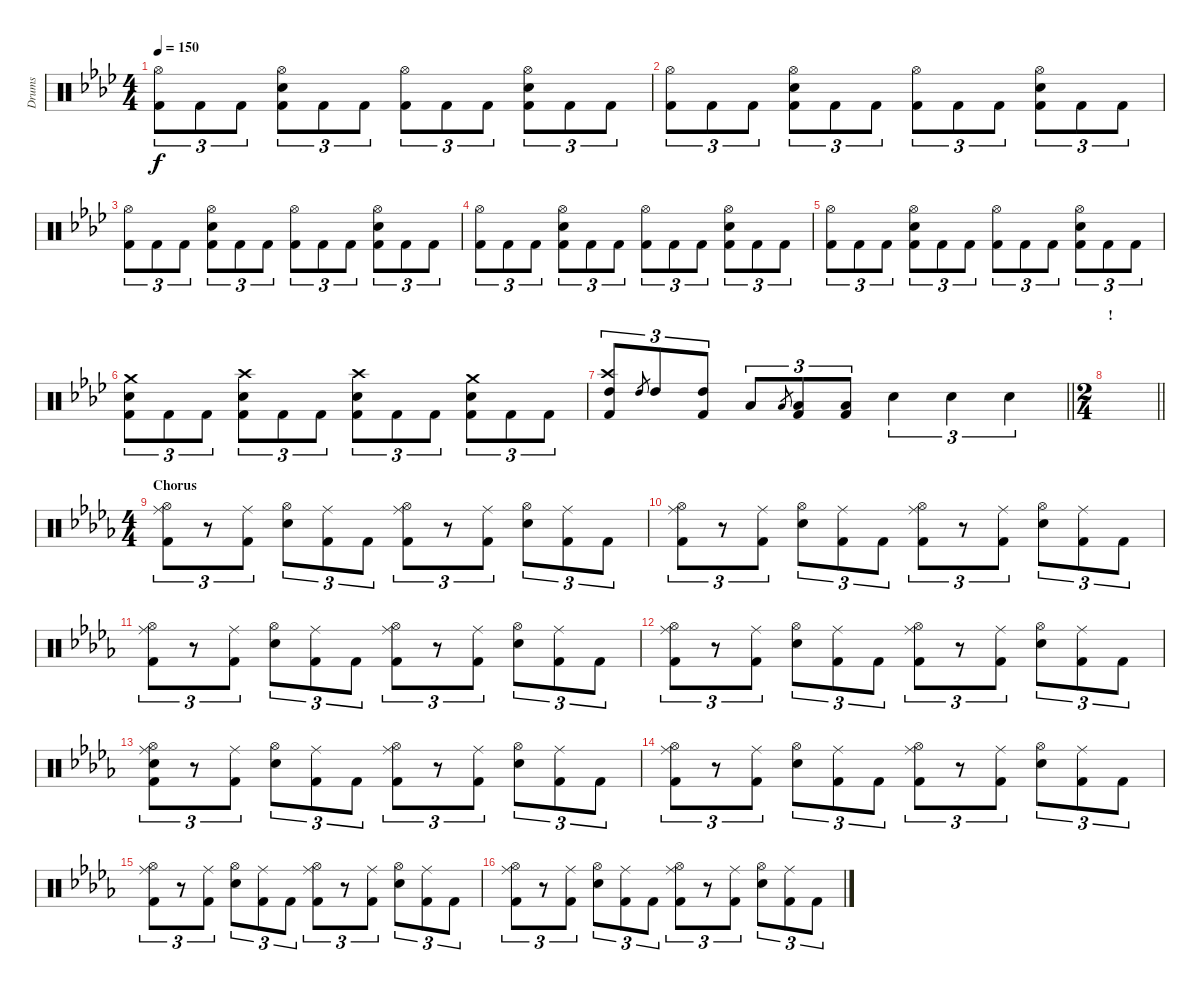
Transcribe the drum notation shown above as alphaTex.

\track ("Drums" "Drums") {instrument percussion}
\staff {score}
\articulation defaults
\ts (4 4)
\tempo 150
\clef neutral
\ks fminor
("Hi-Hat (open)" "Kick (hit) 2").8{tu (3 2) dy f} "Kick (hit) 2".8{tu (3 2)} "Kick (hit) 2".8{tu (3 2)} ("Hi-Hat (open)" "Snare (hit) 2" "Kick (hit) 2").8{tu (3 2)} "Kick (hit) 2".8{tu (3 2)} "Kick (hit) 2".8{tu (3 2)} ("Hi-Hat (open)" "Kick (hit) 2").8{tu (3 2)} "Kick (hit) 2".8{tu (3 2)} "Kick (hit) 2".8{tu (3 2)} ("Hi-Hat (open)" "Snare (hit) 2" "Kick (hit) 2").8{tu (3 2)} "Kick (hit) 2".8{tu (3 2)} "Kick (hit) 2".8{tu (3 2)} |
("Hi-Hat (open)" "Kick (hit) 2").8{tu (3 2)} "Kick (hit) 2".8{tu (3 2)} "Kick (hit) 2".8{tu (3 2)} ("Hi-Hat (open)" "Snare (hit) 2" "Kick (hit) 2").8{tu (3 2)} "Kick (hit) 2".8{tu (3 2)} "Kick (hit) 2".8{tu (3 2)} ("Hi-Hat (open)" "Kick (hit) 2").8{tu (3 2)} "Kick (hit) 2".8{tu (3 2)} "Kick (hit) 2".8{tu (3 2)} ("Hi-Hat (open)" "Snare (hit) 2" "Kick (hit) 2").8{tu (3 2)} "Kick (hit) 2".8{tu (3 2)} "Kick (hit) 2".8{tu (3 2)} |
("Hi-Hat (open)" "Kick (hit) 2").8{tu (3 2)} "Kick (hit) 2".8{tu (3 2)} "Kick (hit) 2".8{tu (3 2)} ("Hi-Hat (open)" "Snare (hit) 2" "Kick (hit) 2").8{tu (3 2)} "Kick (hit) 2".8{tu (3 2)} "Kick (hit) 2".8{tu (3 2)} ("Hi-Hat (open)" "Kick (hit) 2").8{tu (3 2)} "Kick (hit) 2".8{tu (3 2)} "Kick (hit) 2".8{tu (3 2)} ("Hi-Hat (open)" "Snare (hit) 2" "Kick (hit) 2").8{tu (3 2)} "Kick (hit) 2".8{tu (3 2)} "Kick (hit) 2".8{tu (3 2)} |
("Hi-Hat (open)" "Kick (hit) 2").8{tu (3 2)} "Kick (hit) 2".8{tu (3 2)} "Kick (hit) 2".8{tu (3 2)} ("Hi-Hat (open)" "Snare (hit) 2" "Kick (hit) 2").8{tu (3 2)} "Kick (hit) 2".8{tu (3 2)} "Kick (hit) 2".8{tu (3 2)} ("Hi-Hat (open)" "Kick (hit) 2").8{tu (3 2)} "Kick (hit) 2".8{tu (3 2)} "Kick (hit) 2".8{tu (3 2)} ("Hi-Hat (open)" "Snare (hit) 2" "Kick (hit) 2").8{tu (3 2)} "Kick (hit) 2".8{tu (3 2)} "Kick (hit) 2".8{tu (3 2)} |
("Hi-Hat (open)" "Kick (hit) 2").8{tu (3 2)} "Kick (hit) 2".8{tu (3 2)} "Kick (hit) 2".8{tu (3 2)} ("Hi-Hat (open)" "Snare (hit) 2" "Kick (hit) 2").8{tu (3 2)} "Kick (hit) 2".8{tu (3 2)} "Kick (hit) 2".8{tu (3 2)} ("Hi-Hat (open)" "Kick (hit) 2").8{tu (3 2)} "Kick (hit) 2".8{tu (3 2)} "Kick (hit) 2".8{tu (3 2)} ("Hi-Hat (open)" "Snare (hit) 2" "Kick (hit) 2").8{tu (3 2)} "Kick (hit) 2".8{tu (3 2)} "Kick (hit) 2".8{tu (3 2)} |
("Crash medium (hit)" "Snare (hit) 2" "Kick (hit) 2").8{tu (3 2)} "Kick (hit) 2".8{tu (3 2)} "Kick (hit) 2".8{tu (3 2)} ("Crash high (hit)" "Snare (hit) 2" "Kick (hit) 2").8{tu (3 2)} "Kick (hit) 2".8{tu (3 2)} "Kick (hit) 2".8{tu (3 2)} ("Crash high (hit)" "Snare (hit) 2" "Kick (hit) 2").8{tu (3 2)} "Kick (hit) 2".8{tu (3 2)} "Kick (hit) 2".8{tu (3 2)} ("Crash medium (hit)" "Snare (hit) 2" "Kick (hit) 2").8{tu (3 2)} "Kick (hit) 2".8{tu (3 2)} "Kick (hit) 2".8{tu (3 2)} |
\barLineRight lightlight
("Crash high (hit)" "High Tom (hit)" "Kick (hit) 2").8{tu (3 2)} "High Tom (hit)".8{gr} "High Tom (hit)".8{tu (3 2)} ("High Tom (hit)" "Kick (hit) 2").8{tu (3 2)} "Low Tom (hit)".8{tu (3 2)} "Low Tom (hit)".8{gr} ("Low Tom (hit)" "Kick (hit) 2").8{tu (3 2)} ("Low Tom (hit)" "Kick (hit) 2").8{tu (3 2)} "Snare (hit) 2".4{tu (3 2)} "Snare (hit) 2".4{tu (3 2)} "Snare (hit) 2".4{tu (3 2)} |
\ts (2 4)
\section ("" "!")
\barLineRight lightlight
|
\ts (4 4)
\section ("" "Chorus")
\ks bbminor
("Hi-Hat (open)" "Ride (middle)" "Kick (hit) 2").8{tu (3 2)} r.8{tu (3 2)} ("Ride (middle)" "Kick (hit) 2").8{tu (3 2)} ("Hi-Hat (open)" "Snare (hit) 2").8{tu (3 2)} ("Ride (middle)" "Kick (hit) 2").8{tu (3 2)} "Kick (hit) 2".8{tu (3 2)} ("Hi-Hat (open)" "Ride (middle)" "Kick (hit) 2").8{tu (3 2)} r.8{tu (3 2)} ("Ride (middle)" "Kick (hit) 2").8{tu (3 2)} ("Hi-Hat (open)" "Snare (hit) 2").8{tu (3 2)} ("Ride (middle)" "Kick (hit) 2").8{tu (3 2)} "Kick (hit) 2".8{tu (3 2)} |
("Hi-Hat (open)" "Ride (middle)" "Kick (hit) 2").8{tu (3 2)} r.8{tu (3 2)} ("Ride (middle)" "Kick (hit) 2").8{tu (3 2)} ("Hi-Hat (open)" "Snare (hit) 2").8{tu (3 2)} ("Ride (middle)" "Kick (hit) 2").8{tu (3 2)} "Kick (hit) 2".8{tu (3 2)} ("Hi-Hat (open)" "Ride (middle)" "Kick (hit) 2").8{tu (3 2)} r.8{tu (3 2)} ("Ride (middle)" "Kick (hit) 2").8{tu (3 2)} ("Hi-Hat (open)" "Snare (hit) 2").8{tu (3 2)} ("Ride (middle)" "Kick (hit) 2").8{tu (3 2)} "Kick (hit) 2".8{tu (3 2)} |
("Hi-Hat (open)" "Ride (middle)" "Kick (hit) 2").8{tu (3 2)} r.8{tu (3 2)} ("Ride (middle)" "Kick (hit) 2").8{tu (3 2)} ("Hi-Hat (open)" "Snare (hit) 2").8{tu (3 2)} ("Ride (middle)" "Kick (hit) 2").8{tu (3 2)} "Kick (hit) 2".8{tu (3 2)} ("Hi-Hat (open)" "Ride (middle)" "Kick (hit) 2").8{tu (3 2)} r.8{tu (3 2)} ("Ride (middle)" "Kick (hit) 2").8{tu (3 2)} ("Hi-Hat (open)" "Snare (hit) 2").8{tu (3 2)} ("Ride (middle)" "Kick (hit) 2").8{tu (3 2)} "Kick (hit) 2".8{tu (3 2)} |
("Hi-Hat (open)" "Ride (middle)" "Kick (hit) 2").8{tu (3 2)} r.8{tu (3 2)} ("Ride (middle)" "Kick (hit) 2").8{tu (3 2)} ("Hi-Hat (open)" "Snare (hit) 2").8{tu (3 2)} ("Ride (middle)" "Kick (hit) 2").8{tu (3 2)} "Kick (hit) 2".8{tu (3 2)} ("Hi-Hat (open)" "Ride (middle)" "Kick (hit) 2").8{tu (3 2)} r.8{tu (3 2)} ("Ride (middle)" "Kick (hit) 2").8{tu (3 2)} ("Hi-Hat (open)" "Snare (hit) 2").8{tu (3 2)} ("Ride (middle)" "Kick (hit) 2").8{tu (3 2)} "Kick (hit) 2".8{tu (3 2)} |
("Snare (hit)" "Hi-Hat (open)" "Ride (middle)" "Kick (hit) 2").8{tu (3 2)} r.8{tu (3 2)} ("Ride (middle)" "Kick (hit) 2").8{tu (3 2)} ("Hi-Hat (open)" "Snare (hit) 2").8{tu (3 2)} ("Ride (middle)" "Kick (hit) 2").8{tu (3 2)} "Kick (hit) 2".8{tu (3 2)} ("Hi-Hat (open)" "Ride (middle)" "Kick (hit) 2").8{tu (3 2)} r.8{tu (3 2)} ("Ride (middle)" "Kick (hit) 2").8{tu (3 2)} ("Hi-Hat (open)" "Snare (hit) 2").8{tu (3 2)} ("Ride (middle)" "Kick (hit) 2").8{tu (3 2)} "Kick (hit) 2".8{tu (3 2)} |
("Hi-Hat (open)" "Ride (middle)" "Kick (hit) 2").8{tu (3 2)} r.8{tu (3 2)} ("Ride (middle)" "Kick (hit) 2").8{tu (3 2)} ("Hi-Hat (open)" "Snare (hit) 2").8{tu (3 2)} ("Ride (middle)" "Kick (hit) 2").8{tu (3 2)} "Kick (hit) 2".8{tu (3 2)} ("Hi-Hat (open)" "Ride (middle)" "Kick (hit) 2").8{tu (3 2)} r.8{tu (3 2)} ("Ride (middle)" "Kick (hit) 2").8{tu (3 2)} ("Hi-Hat (open)" "Snare (hit) 2").8{tu (3 2)} ("Ride (middle)" "Kick (hit) 2").8{tu (3 2)} "Kick (hit) 2".8{tu (3 2)} |
("Hi-Hat (open)" "Ride (middle)" "Kick (hit) 2").8{tu (3 2)} r.8{tu (3 2)} ("Ride (middle)" "Kick (hit) 2").8{tu (3 2)} ("Hi-Hat (open)" "Snare (hit) 2").8{tu (3 2)} ("Ride (middle)" "Kick (hit) 2").8{tu (3 2)} "Kick (hit) 2".8{tu (3 2)} ("Hi-Hat (open)" "Ride (middle)" "Kick (hit) 2").8{tu (3 2)} r.8{tu (3 2)} ("Ride (middle)" "Kick (hit) 2").8{tu (3 2)} ("Hi-Hat (open)" "Snare (hit) 2").8{tu (3 2)} ("Ride (middle)" "Kick (hit) 2").8{tu (3 2)} "Kick (hit) 2".8{tu (3 2)} |
("Hi-Hat (open)" "Ride (middle)" "Kick (hit) 2").8{tu (3 2)} r.8{tu (3 2)} ("Ride (middle)" "Kick (hit) 2").8{tu (3 2)} ("Hi-Hat (open)" "Snare (hit) 2").8{tu (3 2)} ("Ride (middle)" "Kick (hit) 2").8{tu (3 2)} "Kick (hit) 2".8{tu (3 2)} ("Hi-Hat (open)" "Ride (middle)" "Kick (hit) 2").8{tu (3 2)} r.8{tu (3 2)} ("Ride (middle)" "Kick (hit) 2").8{tu (3 2)} ("Hi-Hat (open)" "Snare (hit) 2").8{tu (3 2)} ("Ride (middle)" "Kick (hit) 2").8{tu (3 2)} "Kick (hit) 2".8{tu (3 2)}
